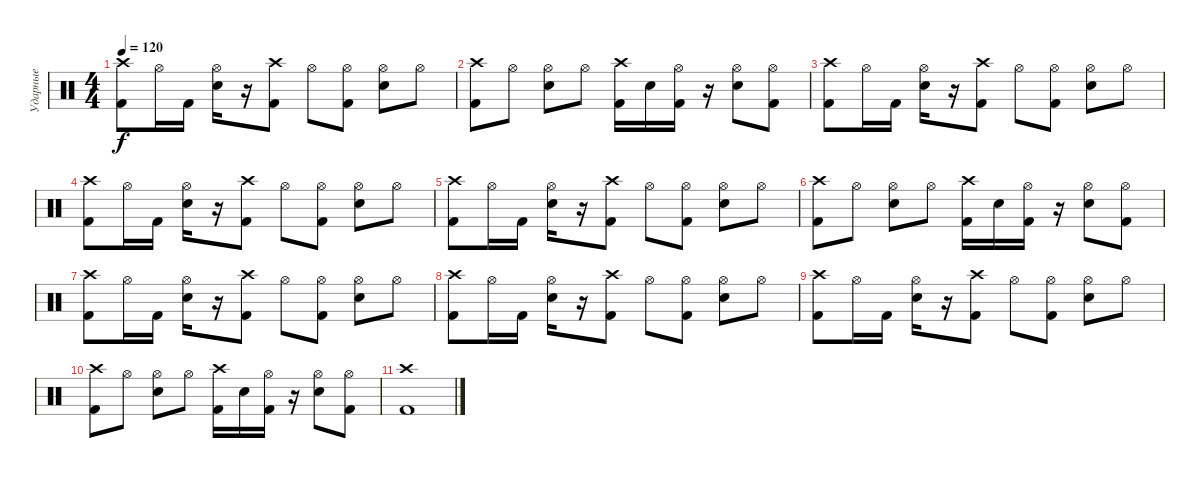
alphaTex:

\track ("Ударные" "Ударные") {instrument percussion}
\staff {score}
\articulation defaults
\ts (4 4)
\tempo 120
\clef neutral
\ks c
("Crash high (hit)" "Kick (hit) 2").8{dy f} "Hi-Hat (open)".16 "Kick (hit) 2".16 ("Hi-Hat (open)" "Electric Snare (hit)").16 r.16 ("Crash high (hit)" "Kick (hit) 2").8 "Hi-Hat (open)".8 ("Hi-Hat (open)" "Kick (hit) 2").8 ("Hi-Hat (open)" "Electric Snare (hit)").8 "Hi-Hat (open)".8 |
("Crash high (hit)" "Kick (hit) 2").8 "Hi-Hat (open)".8 ("Hi-Hat (open)" "Electric Snare (hit)").8 "Hi-Hat (open)".8 ("Crash high (hit)" "Kick (hit) 2").16 "Electric Snare (hit)".16 ("Hi-Hat (open)" "Kick (hit) 2").16 r.16 ("Hi-Hat (open)" "Electric Snare (hit)").8 ("Hi-Hat (open)" "Kick (hit) 2").8 |
("Crash high (hit)" "Kick (hit) 2").8 "Hi-Hat (open)".16 "Kick (hit) 2".16 ("Hi-Hat (open)" "Electric Snare (hit)").16 r.16 ("Crash high (hit)" "Kick (hit) 2").8 "Hi-Hat (open)".8 ("Hi-Hat (open)" "Kick (hit) 2").8 ("Hi-Hat (open)" "Electric Snare (hit)").8 "Hi-Hat (open)".8 |
("Crash high (hit)" "Kick (hit) 2").8 "Hi-Hat (open)".16 "Kick (hit) 2".16 ("Hi-Hat (open)" "Electric Snare (hit)").16 r.16 ("Crash high (hit)" "Kick (hit) 2").8 "Hi-Hat (open)".8 ("Hi-Hat (open)" "Kick (hit) 2").8 ("Hi-Hat (open)" "Electric Snare (hit)").8 "Hi-Hat (open)".8 |
("Crash high (hit)" "Kick (hit) 2").8 "Hi-Hat (open)".16 "Kick (hit) 2".16 ("Hi-Hat (open)" "Electric Snare (hit)").16 r.16 ("Crash high (hit)" "Kick (hit) 2").8 "Hi-Hat (open)".8 ("Hi-Hat (open)" "Kick (hit) 2").8 ("Hi-Hat (open)" "Electric Snare (hit)").8 "Hi-Hat (open)".8 |
("Crash high (hit)" "Kick (hit) 2").8 "Hi-Hat (open)".8 ("Hi-Hat (open)" "Electric Snare (hit)").8 "Hi-Hat (open)".8 ("Crash high (hit)" "Kick (hit) 2").16 "Electric Snare (hit)".16 ("Hi-Hat (open)" "Kick (hit) 2").16 r.16 ("Hi-Hat (open)" "Electric Snare (hit)").8 ("Hi-Hat (open)" "Kick (hit) 2").8 |
("Crash high (hit)" "Kick (hit) 2").8 "Hi-Hat (open)".16 "Kick (hit) 2".16 ("Hi-Hat (open)" "Electric Snare (hit)").16 r.16 ("Crash high (hit)" "Kick (hit) 2").8 "Hi-Hat (open)".8 ("Hi-Hat (open)" "Kick (hit) 2").8 ("Hi-Hat (open)" "Electric Snare (hit)").8 "Hi-Hat (open)".8 |
("Crash high (hit)" "Kick (hit) 2").8 "Hi-Hat (open)".16 "Kick (hit) 2".16 ("Hi-Hat (open)" "Electric Snare (hit)").16 r.16 ("Crash high (hit)" "Kick (hit) 2").8 "Hi-Hat (open)".8 ("Hi-Hat (open)" "Kick (hit) 2").8 ("Hi-Hat (open)" "Electric Snare (hit)").8 "Hi-Hat (open)".8 |
("Crash high (hit)" "Kick (hit) 2").8 "Hi-Hat (open)".16 "Kick (hit) 2".16 ("Hi-Hat (open)" "Electric Snare (hit)").16 r.16 ("Crash high (hit)" "Kick (hit) 2").8 "Hi-Hat (open)".8 ("Hi-Hat (open)" "Kick (hit) 2").8 ("Hi-Hat (open)" "Electric Snare (hit)").8 "Hi-Hat (open)".8 |
("Crash high (hit)" "Kick (hit) 2").8 "Hi-Hat (open)".8 ("Hi-Hat (open)" "Electric Snare (hit)").8 "Hi-Hat (open)".8 ("Crash high (hit)" "Kick (hit) 2").16 "Electric Snare (hit)".16 ("Hi-Hat (open)" "Kick (hit) 2").16 r.16 ("Hi-Hat (open)" "Electric Snare (hit)").8 ("Hi-Hat (open)" "Kick (hit) 2").8 |
("Crash high (hit)" "Kick (hit) 2").1
